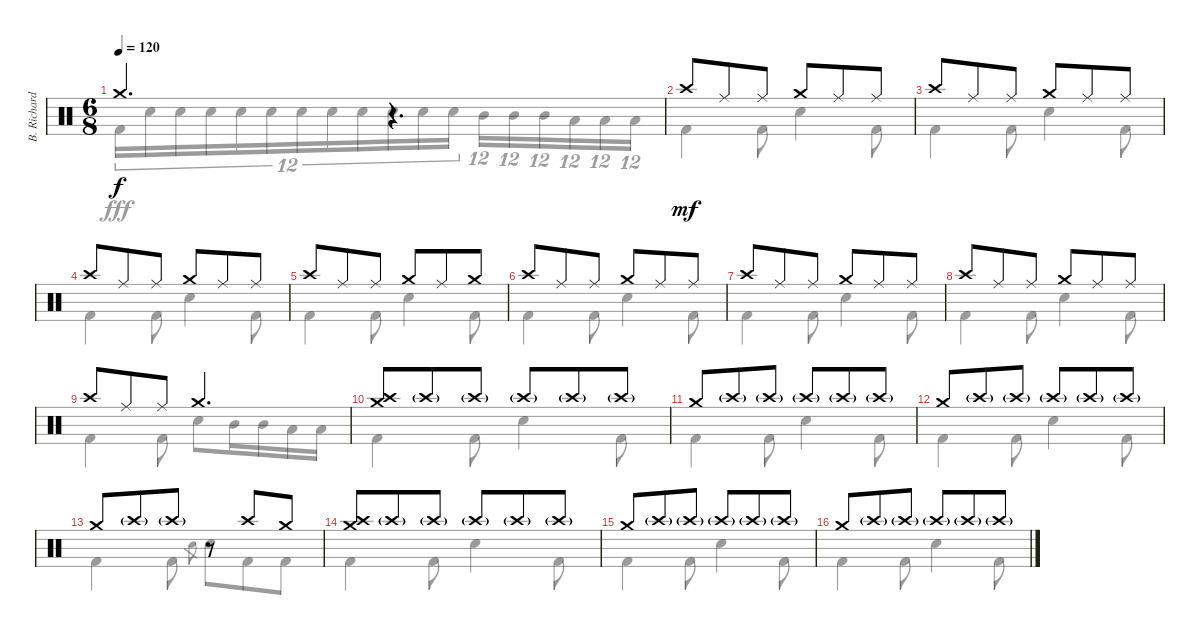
\track ("B. Richardson Drums" "B. Richard") {instrument percussion}
\staff {score}
\articulation defaults
\voice
\ts (6 8)
\tempo 120
\clef neutral
\ks c "Crash medium (hit)".4{d dy f}
r.4{d} |
"Crash high (hit)".8{dy mf} "Ride (middle)".8 "Ride (middle)".8 "Crash medium (hit)".8 "Ride (middle)".8 "Ride (middle)".8 |
"Crash high (hit)".8 "Ride (middle)".8 "Ride (middle)".8 "Crash medium (hit)".8 "Ride (middle)".8 "Ride (middle)".8 |
"Crash high (hit)".8 "Ride (middle)".8 "Ride (middle)".8 "Crash medium (hit)".8 "Ride (middle)".8 "Ride (middle)".8 |
"Crash high (hit)".8 "Ride (middle)".8 "Ride (middle)".8 "Crash medium (hit)".8 "Ride (middle)".8 "Crash medium (hit)".8 |
"Crash high (hit)".8 "Ride (middle)".8 "Ride (middle)".8 "Crash medium (hit)".8 "Ride (middle)".8 "Ride (middle)".8 |
"Crash high (hit)".8 "Ride (middle)".8 "Ride (middle)".8 "Crash medium (hit)".8 "Ride (middle)".8 "Ride (middle)".8 |
"Crash high (hit)".8 "Ride (middle)".8 "Ride (middle)".8 "Crash medium (hit)".8 "Ride (middle)".8 "Ride (middle)".8 |
"Crash high (hit)".8 "Ride (middle)".8 "Ride (middle)".8 "Crash medium (hit)".4{d} |
("Crash high (hit)" "Crash medium (hit)").8 "Crash high (hit)"{g}.8 "Crash high (hit)"{g}.8 "Crash high (hit)"{g}.8 "Crash high (hit)"{g}.8 "Crash high (hit)"{g}.8 |
"Crash medium (hit)".8 "Crash high (hit)"{g}.8 "Crash high (hit)"{g}.8 "Crash high (hit)"{g}.8 "Crash high (hit)"{g}.8 "Crash high (hit)"{g}.8 |
"Crash medium (hit)".8 "Crash high (hit)"{g}.8 "Crash high (hit)"{g}.8 "Crash high (hit)"{g}.8 "Crash high (hit)"{g}.8 "Crash high (hit)"{g}.8 |
"Crash medium (hit)".8 "Crash high (hit)"{g}.8 "Crash high (hit)"{g}.8 r.8 "Crash high (hit)".8 "Crash medium (hit)".8 |
("Crash high (hit)" "Crash medium (hit)").8 "Crash high (hit)"{g}.8 "Crash high (hit)"{g}.8 "Crash high (hit)"{g}.8 "Crash high (hit)"{g}.8 "Crash high (hit)"{g}.8 |
"Crash medium (hit)".8 "Crash high (hit)"{g}.8 "Crash high (hit)"{g}.8 "Crash high (hit)"{g}.8 "Crash high (hit)"{g}.8 "Crash high (hit)"{g}.8 |
"Crash medium (hit)".8 "Crash high (hit)"{g}.8 "Crash high (hit)"{g}.8 "Crash high (hit)"{g}.8 "Crash high (hit)"{g}.8 "Crash high (hit)"{g}.8
\voice
\clef neutral
\ottava regular
\simile none
\ks c "Kick (hit) 2".16{tu (12 8) dy fff} "Electric Snare (hit)".16{tu (12 8)} "Electric Snare (hit)".16{tu (12 8)} "Electric Snare (hit)".16{tu (12 8)} "Electric Snare (hit)".16{tu (12 8)} "Electric Snare (hit)".16{tu (12 8)} "Electric Snare (hit)".16{tu (12 8)} "Electric Snare (hit)".16{tu (12 8)} "Electric Snare (hit)".16{tu (12 8)} "Electric Snare (hit)".16{tu (12 8)} "Electric Snare (hit)".16{tu (12 8)} "Electric Snare (hit)".16{tu (12 8)} "Mid Tom (hit)".16{tu (12 8)} "Mid Tom (hit)".16{tu (12 8)} "Mid Tom (hit)".16{tu (12 8)} "Low Tom (hit)".16{tu (12 8)} "Low Tom (hit)".16{tu (12 8)} "Low Tom (hit)".16{tu (12 8)}
|
"Kick (hit) 2".4 "Kick (hit) 2".8 "Electric Snare (hit)".4 "Kick (hit) 2".8 |
"Kick (hit) 2".4 "Kick (hit) 2".8 "Electric Snare (hit)".4 "Kick (hit) 2".8 |
"Kick (hit) 2".4 "Kick (hit) 2".8 "Electric Snare (hit)".4 "Kick (hit) 2".8 |
"Kick (hit) 2".4 "Kick (hit) 2".8 "Electric Snare (hit)".4 "Kick (hit) 2".8 |
"Kick (hit) 2".4 "Kick (hit) 2".8 "Electric Snare (hit)".4 "Kick (hit) 2".8 |
"Kick (hit) 2".4 "Kick (hit) 2".8 "Electric Snare (hit)".4 "Kick (hit) 2".8 |
"Kick (hit) 2".4 "Kick (hit) 2".8 "Electric Snare (hit)".4 "Kick (hit) 2".8 |
"Kick (hit) 2".4 "Kick (hit) 2".8 "Electric Snare (hit)".8 "Mid Tom (hit)".16 "Mid Tom (hit)".16 "Low Tom (hit)".16 "Low Tom (hit)".16 |
"Kick (hit) 2".4 "Kick (hit) 2".8 "Electric Snare (hit)".4 "Kick (hit) 2".8 |
"Kick (hit) 2".4 "Kick (hit) 2".8 "Electric Snare (hit)".4 "Kick (hit) 2".8 |
"Kick (hit) 2".4 "Kick (hit) 2".8 "Electric Snare (hit)".4 "Kick (hit) 2".8 |
"Kick (hit) 2".4 "Kick (hit) 2".8 "Electric Snare (hit)".8{gr} "Electric Snare (hit)".8 "Kick (hit) 2".8 "Kick (hit) 2".8 |
"Kick (hit) 2".4 "Kick (hit) 2".8 "Electric Snare (hit)".4 "Kick (hit) 2".8 |
"Kick (hit) 2".4 "Kick (hit) 2".8 "Electric Snare (hit)".4 "Kick (hit) 2".8 |
"Kick (hit) 2".4 "Kick (hit) 2".8 "Electric Snare (hit)".4 "Kick (hit) 2".8
